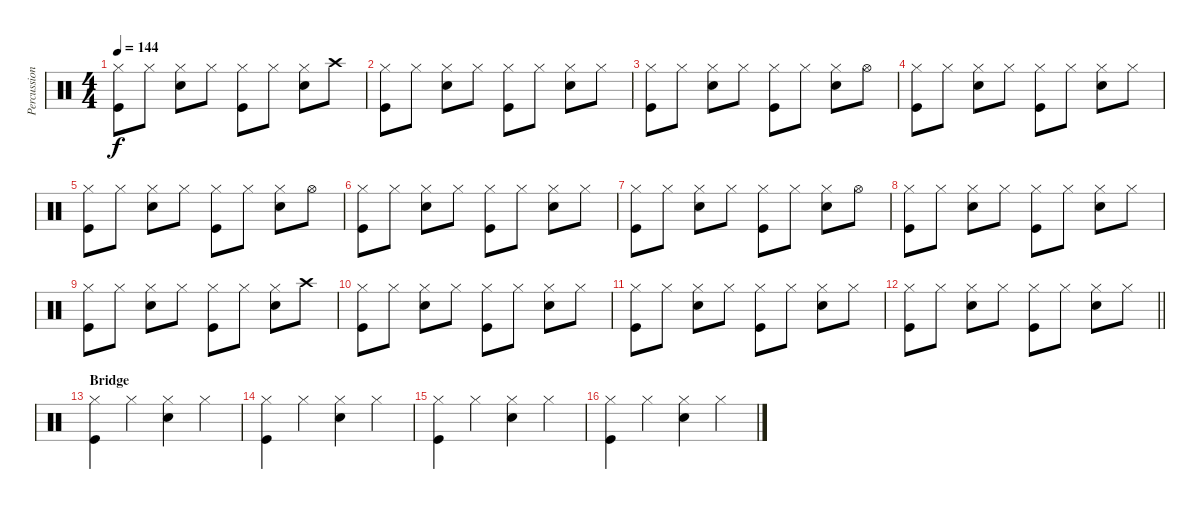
\track ("Percussion" "Percussion") {instrument percussion}
\staff {score}
\articulation defaults
\ts (4 4)
\tempo 144
\clef neutral
\ks c
("Hi-Hat (closed)" "Kick (hit)").8{dy f} "Hi-Hat (closed)".8 ("Hi-Hat (closed)" "Snare (hit) 2").8 "Hi-Hat (closed)".8 ("Hi-Hat (closed)" "Kick (hit)").8 "Hi-Hat (closed)".8 ("Hi-Hat (closed)" "Snare (hit) 2").8 "Crash high (hit)".8 |
("Hi-Hat (closed)" "Kick (hit)").8 "Hi-Hat (closed)".8 ("Hi-Hat (closed)" "Snare (hit) 2").8 "Hi-Hat (closed)".8 ("Hi-Hat (closed)" "Kick (hit)").8 "Hi-Hat (closed)".8 ("Hi-Hat (closed)" "Snare (hit) 2").8 "Hi-Hat (closed)".8 |
("Hi-Hat (closed)" "Kick (hit)").8 "Hi-Hat (closed)".8 ("Hi-Hat (closed)" "Snare (hit) 2").8 "Hi-Hat (closed)".8 ("Hi-Hat (closed)" "Kick (hit)").8 "Hi-Hat (closed)".8 ("Hi-Hat (closed)" "Snare (hit) 2").8 "Hi-Hat (open)".8 |
("Hi-Hat (closed)" "Kick (hit)").8 "Hi-Hat (closed)".8 ("Hi-Hat (closed)" "Snare (hit) 2").8 "Hi-Hat (closed)".8 ("Hi-Hat (closed)" "Kick (hit)").8 "Hi-Hat (closed)".8 ("Hi-Hat (closed)" "Snare (hit) 2").8 "Hi-Hat (closed)".8 |
("Hi-Hat (closed)" "Kick (hit)").8 "Hi-Hat (closed)".8 ("Hi-Hat (closed)" "Snare (hit) 2").8 "Hi-Hat (closed)".8 ("Hi-Hat (closed)" "Kick (hit)").8 "Hi-Hat (closed)".8 ("Hi-Hat (closed)" "Snare (hit) 2").8 "Hi-Hat (open)".8 |
("Hi-Hat (closed)" "Kick (hit)").8 "Hi-Hat (closed)".8 ("Hi-Hat (closed)" "Snare (hit) 2").8 "Hi-Hat (closed)".8 ("Hi-Hat (closed)" "Kick (hit)").8 "Hi-Hat (closed)".8 ("Hi-Hat (closed)" "Snare (hit) 2").8 "Hi-Hat (closed)".8 |
("Hi-Hat (closed)" "Kick (hit)").8 "Hi-Hat (closed)".8 ("Hi-Hat (closed)" "Snare (hit) 2").8 "Hi-Hat (closed)".8 ("Hi-Hat (closed)" "Kick (hit)").8 "Hi-Hat (closed)".8 ("Hi-Hat (closed)" "Snare (hit) 2").8 "Hi-Hat (open)".8 |
("Hi-Hat (closed)" "Kick (hit)").8 "Hi-Hat (closed)".8 ("Hi-Hat (closed)" "Snare (hit) 2").8 "Hi-Hat (closed)".8 ("Hi-Hat (closed)" "Kick (hit)").8 "Hi-Hat (closed)".8 ("Hi-Hat (closed)" "Snare (hit) 2").8 "Hi-Hat (closed)".8 |
("Hi-Hat (closed)" "Kick (hit)").8 "Hi-Hat (closed)".8 ("Hi-Hat (closed)" "Snare (hit) 2").8 "Hi-Hat (closed)".8 ("Hi-Hat (closed)" "Kick (hit)").8 "Hi-Hat (closed)".8 ("Hi-Hat (closed)" "Snare (hit) 2").8 "Crash high (hit)".8 |
("Hi-Hat (closed)" "Kick (hit)").8 "Hi-Hat (closed)".8 ("Hi-Hat (closed)" "Snare (hit) 2").8 "Hi-Hat (closed)".8 ("Hi-Hat (closed)" "Kick (hit)").8 "Hi-Hat (closed)".8 ("Hi-Hat (closed)" "Snare (hit) 2").8 "Hi-Hat (closed)".8 |
("Hi-Hat (closed)" "Kick (hit)").8 "Hi-Hat (closed)".8 ("Hi-Hat (closed)" "Snare (hit) 2").8 "Hi-Hat (closed)".8 ("Hi-Hat (closed)" "Kick (hit)").8 "Hi-Hat (closed)".8 ("Hi-Hat (closed)" "Snare (hit) 2").8 "Hi-Hat (closed)".8 |
\barLineRight lightlight
("Hi-Hat (closed)" "Kick (hit)").8 "Hi-Hat (closed)".8 ("Hi-Hat (closed)" "Snare (hit) 2").8 "Hi-Hat (closed)".8 ("Hi-Hat (closed)" "Kick (hit)").8 "Hi-Hat (closed)".8 ("Hi-Hat (closed)" "Snare (hit) 2").8 "Hi-Hat (closed)".8 |
\section ("" "Bridge")
("Hi-Hat (closed)" "Kick (hit)").4 "Hi-Hat (closed)".4 ("Hi-Hat (closed)" "Snare (hit) 2").4 "Hi-Hat (closed)".4 |
("Hi-Hat (closed)" "Kick (hit)").4 "Hi-Hat (closed)".4 ("Hi-Hat (closed)" "Snare (hit) 2").4 "Hi-Hat (closed)".4 |
("Hi-Hat (closed)" "Kick (hit)").4 "Hi-Hat (closed)".4 ("Hi-Hat (closed)" "Snare (hit) 2").4 "Hi-Hat (closed)".4 |
("Hi-Hat (closed)" "Kick (hit)").4 "Hi-Hat (closed)".4 ("Hi-Hat (closed)" "Snare (hit) 2").4 "Hi-Hat (closed)".4
